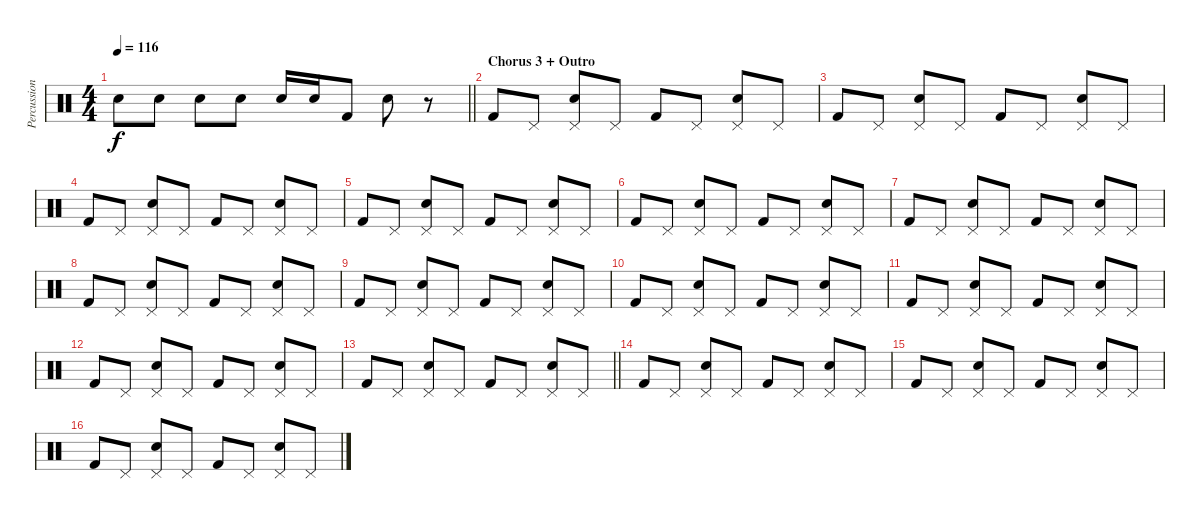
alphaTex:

\track ("Percussion" "Percussion") {instrument percussion}
\staff {score}
\articulation defaults
\ts (4 4)
\tempo 116
\clef neutral
\barLineRight lightlight
\ks c "Snare (hit) 2".8{dy f} "Snare (hit) 2".8 "Snare (hit) 2".8 "Snare (hit) 2".8 "Snare (hit) 2".16 "Snare (hit) 2".16 "Kick (hit) 2".8 "Snare (hit) 2".8
r.8 |
\section ("" "Chorus 3 + Outro")
"Kick (hit) 2".8 "Pedal Hi-Hat (hit)".8 ("Pedal Hi-Hat (hit)" "Snare (hit) 2").8 "Pedal Hi-Hat (hit)".8 "Kick (hit) 2".8 "Pedal Hi-Hat (hit)".8 ("Pedal Hi-Hat (hit)" "Snare (hit) 2").8 "Pedal Hi-Hat (hit)".8 |
"Kick (hit) 2".8 "Pedal Hi-Hat (hit)".8 ("Pedal Hi-Hat (hit)" "Snare (hit) 2").8 "Pedal Hi-Hat (hit)".8 "Kick (hit) 2".8 "Pedal Hi-Hat (hit)".8 ("Pedal Hi-Hat (hit)" "Snare (hit) 2").8 "Pedal Hi-Hat (hit)".8 |
"Kick (hit) 2".8 "Pedal Hi-Hat (hit)".8 ("Pedal Hi-Hat (hit)" "Snare (hit) 2").8 "Pedal Hi-Hat (hit)".8 "Kick (hit) 2".8 "Pedal Hi-Hat (hit)".8 ("Pedal Hi-Hat (hit)" "Snare (hit) 2").8 "Pedal Hi-Hat (hit)".8 |
"Kick (hit) 2".8 "Pedal Hi-Hat (hit)".8 ("Pedal Hi-Hat (hit)" "Snare (hit) 2").8 "Pedal Hi-Hat (hit)".8 "Kick (hit) 2".8 "Pedal Hi-Hat (hit)".8 ("Pedal Hi-Hat (hit)" "Snare (hit) 2").8 "Pedal Hi-Hat (hit)".8 |
"Kick (hit) 2".8 "Pedal Hi-Hat (hit)".8 ("Pedal Hi-Hat (hit)" "Snare (hit) 2").8 "Pedal Hi-Hat (hit)".8 "Kick (hit) 2".8 "Pedal Hi-Hat (hit)".8 ("Pedal Hi-Hat (hit)" "Snare (hit) 2").8 "Pedal Hi-Hat (hit)".8 |
"Kick (hit) 2".8 "Pedal Hi-Hat (hit)".8 ("Pedal Hi-Hat (hit)" "Snare (hit) 2").8 "Pedal Hi-Hat (hit)".8 "Kick (hit) 2".8 "Pedal Hi-Hat (hit)".8 ("Pedal Hi-Hat (hit)" "Snare (hit) 2").8 "Pedal Hi-Hat (hit)".8 |
"Kick (hit) 2".8 "Pedal Hi-Hat (hit)".8 ("Pedal Hi-Hat (hit)" "Snare (hit) 2").8 "Pedal Hi-Hat (hit)".8 "Kick (hit) 2".8 "Pedal Hi-Hat (hit)".8 ("Pedal Hi-Hat (hit)" "Snare (hit) 2").8 "Pedal Hi-Hat (hit)".8 |
"Kick (hit) 2".8 "Pedal Hi-Hat (hit)".8 ("Pedal Hi-Hat (hit)" "Snare (hit) 2").8 "Pedal Hi-Hat (hit)".8 "Kick (hit) 2".8 "Pedal Hi-Hat (hit)".8 ("Pedal Hi-Hat (hit)" "Snare (hit) 2").8 "Pedal Hi-Hat (hit)".8 |
"Kick (hit) 2".8 "Pedal Hi-Hat (hit)".8 ("Pedal Hi-Hat (hit)" "Snare (hit) 2").8 "Pedal Hi-Hat (hit)".8 "Kick (hit) 2".8 "Pedal Hi-Hat (hit)".8 ("Pedal Hi-Hat (hit)" "Snare (hit) 2").8 "Pedal Hi-Hat (hit)".8 |
"Kick (hit) 2".8 "Pedal Hi-Hat (hit)".8 ("Pedal Hi-Hat (hit)" "Snare (hit) 2").8 "Pedal Hi-Hat (hit)".8 "Kick (hit) 2".8 "Pedal Hi-Hat (hit)".8 ("Pedal Hi-Hat (hit)" "Snare (hit) 2").8 "Pedal Hi-Hat (hit)".8 |
"Kick (hit) 2".8 "Pedal Hi-Hat (hit)".8 ("Pedal Hi-Hat (hit)" "Snare (hit) 2").8 "Pedal Hi-Hat (hit)".8 "Kick (hit) 2".8 "Pedal Hi-Hat (hit)".8 ("Pedal Hi-Hat (hit)" "Snare (hit) 2").8 "Pedal Hi-Hat (hit)".8 |
\barLineRight lightlight "Kick (hit) 2".8 "Pedal Hi-Hat (hit)".8
("Pedal Hi-Hat (hit)" "Snare (hit) 2").8 "Pedal Hi-Hat (hit)".8 "Kick (hit) 2".8 "Pedal Hi-Hat (hit)".8 ("Pedal Hi-Hat (hit)" "Snare (hit) 2").8 "Pedal Hi-Hat (hit)".8 |
"Kick (hit) 2".8 "Pedal Hi-Hat (hit)".8 ("Pedal Hi-Hat (hit)" "Snare (hit) 2").8 "Pedal Hi-Hat (hit)".8 "Kick (hit) 2".8 "Pedal Hi-Hat (hit)".8 ("Pedal Hi-Hat (hit)" "Snare (hit) 2").8 "Pedal Hi-Hat (hit)".8 |
"Kick (hit) 2".8 "Pedal Hi-Hat (hit)".8 ("Pedal Hi-Hat (hit)" "Snare (hit) 2").8 "Pedal Hi-Hat (hit)".8 "Kick (hit) 2".8 "Pedal Hi-Hat (hit)".8 ("Pedal Hi-Hat (hit)" "Snare (hit) 2").8 "Pedal Hi-Hat (hit)".8 |
"Kick (hit) 2".8 "Pedal Hi-Hat (hit)".8 ("Pedal Hi-Hat (hit)" "Snare (hit) 2").8 "Pedal Hi-Hat (hit)".8 "Kick (hit) 2".8 "Pedal Hi-Hat (hit)".8 ("Pedal Hi-Hat (hit)" "Snare (hit) 2").8 "Pedal Hi-Hat (hit)".8
